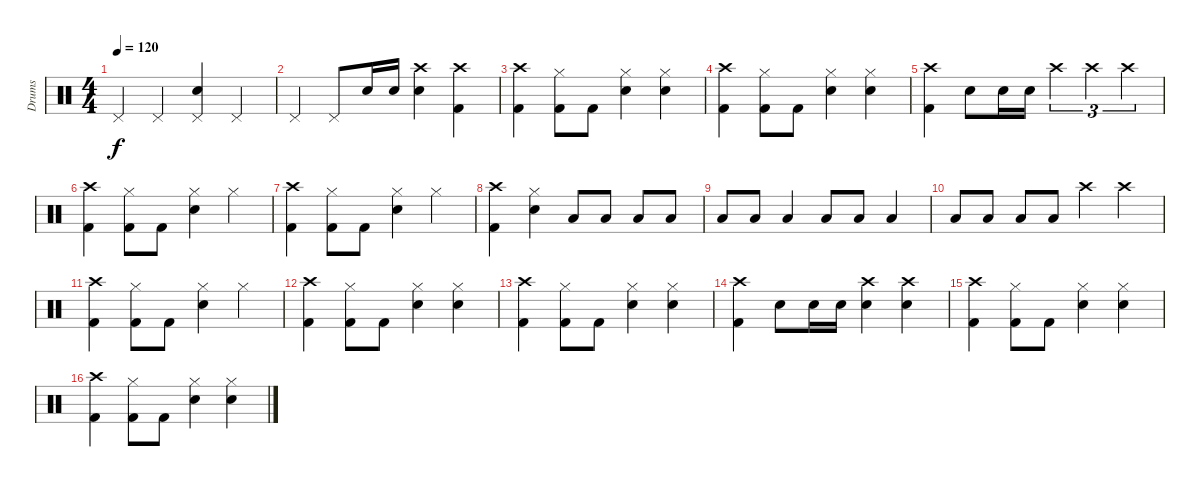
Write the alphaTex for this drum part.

\track ("Drums" "Drums") {instrument percussion}
\staff {score}
\articulation defaults
\ts (4 4)
\tempo 120
\clef neutral
\ks c "Pedal Hi-Hat (hit)".4{dy f} "Pedal Hi-Hat (hit)".4
("Pedal Hi-Hat (hit)" "Snare (hit) 2").4 "Pedal Hi-Hat (hit)".4 |
"Pedal Hi-Hat (hit)".4 "Pedal Hi-Hat (hit)".8 "Snare (hit) 2".16 "Snare (hit) 2".16 ("Crash high (hit)" "Snare (hit) 2").4 ("Crash high (hit)" "Kick (hit) 2").4 |
("Crash high (hit)" "Kick (hit) 2").4 ("Hi-Hat (closed)" "Kick (hit) 2").8 "Kick (hit) 2".8 ("Hi-Hat (closed)" "Snare (hit) 2").4 ("Hi-Hat (closed)" "Snare (hit) 2").4 |
("Crash high (hit)" "Kick (hit) 2").4 ("Hi-Hat (closed)" "Kick (hit) 2").8 "Kick (hit) 2".8 ("Hi-Hat (closed)" "Snare (hit) 2").4 ("Hi-Hat (closed)" "Snare (hit) 2").4 |
("Crash high (hit)" "Kick (hit) 2").4 "Snare (hit) 2".8 "Snare (hit) 2".16 "Snare (hit) 2".16 "Crash high (hit)".4{tu (3 2)} "Crash high (hit)".4{tu (3 2)} "Crash high (hit)".4{tu (3 2)} |
("Crash high (hit)" "Kick (hit) 2").4 ("Hi-Hat (closed)" "Kick (hit) 2").8 "Kick (hit) 2".8 ("Hi-Hat (closed)" "Snare (hit) 2").4 "Hi-Hat (closed)".4 |
("Crash high (hit)" "Kick (hit) 2").4 ("Hi-Hat (closed)" "Kick (hit) 2").8 "Kick (hit) 2".8 ("Hi-Hat (closed)" "Snare (hit) 2").4 "Hi-Hat (closed)".4 |
("Crash high (hit)" "Kick (hit) 2").4 ("Hi-Hat (closed)" "Snare (hit) 2").4 "Low Tom (hit)".8 "Low Tom (hit)".8 "Low Tom (hit)".8 "Low Tom (hit)".8 |
"Low Tom (hit)".8 "Low Tom (hit)".8 "Low Tom (hit)".4 "Low Tom (hit)".8 "Low Tom (hit)".8 "Low Tom (hit)".4 |
"Low Tom (hit)".8 "Low Tom (hit)".8 "Low Tom (hit)".8 "Low Tom (hit)".8 "Crash high (hit)".4 "Crash high (hit)".4 |
("Crash high (hit)" "Kick (hit) 2").4 ("Hi-Hat (closed)" "Kick (hit) 2").8 "Kick (hit) 2".8 ("Hi-Hat (closed)" "Snare (hit) 2").4 "Hi-Hat (closed)".4 |
("Crash high (hit)" "Kick (hit) 2").4 ("Hi-Hat (closed)" "Kick (hit) 2").8 "Kick (hit) 2".8 ("Hi-Hat (closed)" "Snare (hit) 2").4 ("Hi-Hat (closed)" "Snare (hit) 2").4 |
("Crash high (hit)" "Kick (hit) 2").4 ("Hi-Hat (closed)" "Kick (hit) 2").8 "Kick (hit) 2".8 ("Hi-Hat (closed)" "Snare (hit) 2").4 ("Hi-Hat (closed)" "Snare (hit) 2").4 |
("Crash high (hit)" "Kick (hit) 2").4 "Snare (hit) 2".8 "Snare (hit) 2".16 "Snare (hit) 2".16 ("Crash high (hit)" "Snare (hit) 2").4 ("Crash high (hit)" "Snare (hit) 2").4 |
("Crash high (hit)" "Kick (hit) 2").4 ("Hi-Hat (closed)" "Kick (hit) 2").8 "Kick (hit) 2".8 ("Hi-Hat (closed)" "Snare (hit) 2").4 ("Hi-Hat (closed)" "Snare (hit) 2").4 |
("Crash high (hit)" "Kick (hit) 2").4 ("Hi-Hat (closed)" "Kick (hit) 2").8 "Kick (hit) 2".8 ("Hi-Hat (closed)" "Snare (hit) 2").4 ("Hi-Hat (closed)" "Snare (hit) 2").4
